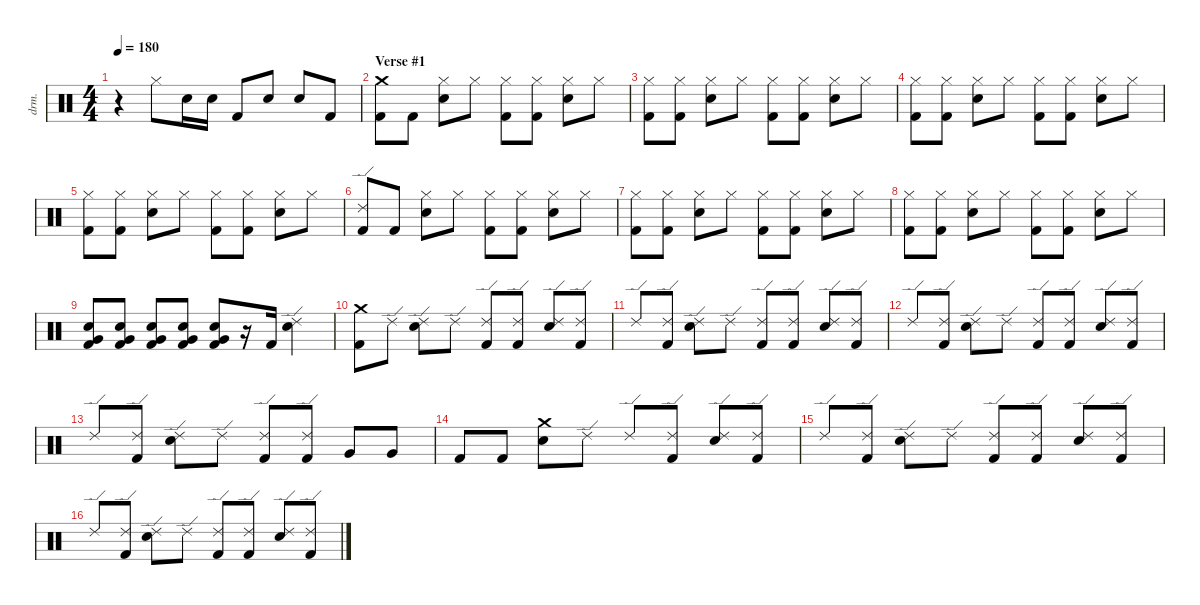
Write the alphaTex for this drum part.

\defaultSystemsLayout 4
\hideDynamics
\bracketExtendMode nobrackets
\otherSystemsTrackNameOrientation horizontal
\track ("Drums" "drm.") {instrument percussion}
\staff {score}
\articulation defaults
\ts (4 4)
\tempo 180
\clef neutral
\ks c
r.4{dy f beam Down} "Hi-Hat (closed)".8{beam Down} "Snare (hit) 2".16{beam Down} "Snare (hit) 2".16{beam Down} "Kick (hit) 2".8{beam Up} "Snare (hit) 2".8{beam Up} "Snare (hit) 2".8{beam Up} "Kick (hit) 2".8{beam Up} |
\section ("" "Verse #1")
("Crash medium (hit)" "Kick (hit) 2").8{beam Down} "Kick (hit) 2".8{beam Down} ("Hi-Hat (closed)" "Snare (hit) 2").8{beam Down} "Hi-Hat (closed)".8{beam Down} ("Hi-Hat (closed)" "Kick (hit) 2").8{beam Down} ("Hi-Hat (closed)" "Kick (hit) 2").8{beam Down} ("Hi-Hat (closed)" "Snare (hit) 2").8{beam Down} "Hi-Hat (closed)".8{beam Down} |
("Hi-Hat (closed)" "Kick (hit) 2").8{beam Down} ("Hi-Hat (closed)" "Kick (hit) 2").8{beam Down} ("Hi-Hat (closed)" "Snare (hit) 2").8{beam Down} "Hi-Hat (closed)".8{beam Down} ("Hi-Hat (closed)" "Kick (hit) 2").8{beam Down} ("Hi-Hat (closed)" "Kick (hit) 2").8{beam Down} ("Hi-Hat (closed)" "Snare (hit) 2").8{beam Down} "Hi-Hat (closed)".8{beam Down} |
("Hi-Hat (closed)" "Kick (hit) 2").8{beam Down} ("Hi-Hat (closed)" "Kick (hit) 2").8{beam Down} ("Hi-Hat (closed)" "Snare (hit) 2").8{beam Down} "Hi-Hat (closed)".8{beam Down} ("Hi-Hat (closed)" "Kick (hit) 2").8{beam Down} ("Hi-Hat (closed)" "Kick (hit) 2").8{beam Down} ("Hi-Hat (closed)" "Snare (hit) 2").8{beam Down} "Hi-Hat (closed)".8{beam Down} |
("Hi-Hat (closed)" "Kick (hit) 2").8{beam Down} ("Hi-Hat (closed)" "Kick (hit) 2").8{beam Down} ("Hi-Hat (closed)" "Snare (hit) 2").8{beam Down} "Hi-Hat (closed)".8{beam Down} ("Hi-Hat (closed)" "Kick (hit) 2").8{beam Down} ("Hi-Hat (closed)" "Kick (hit) 2").8{beam Down} ("Hi-Hat (closed)" "Snare (hit) 2").8{beam Down} "Hi-Hat (closed)".8{beam Down} |
("Ride (edge) 2" "Kick (hit) 2").8{beam Up} "Kick (hit) 2".8{beam Up} ("Hi-Hat (closed)" "Snare (hit) 2").8{beam Down} "Hi-Hat (closed)".8{beam Down} ("Hi-Hat (closed)" "Kick (hit) 2").8{beam Down} ("Hi-Hat (closed)" "Kick (hit) 2").8{beam Down} ("Hi-Hat (closed)" "Snare (hit) 2").8{beam Down} "Hi-Hat (closed)".8{beam Down} |
("Hi-Hat (closed)" "Kick (hit) 2").8{beam Down} ("Hi-Hat (closed)" "Kick (hit) 2").8{beam Down} ("Hi-Hat (closed)" "Snare (hit) 2").8{beam Down} "Hi-Hat (closed)".8{beam Down} ("Hi-Hat (closed)" "Kick (hit) 2").8{beam Down} ("Hi-Hat (closed)" "Kick (hit) 2").8{beam Down} ("Hi-Hat (closed)" "Snare (hit) 2").8{beam Down} "Hi-Hat (closed)".8{beam Down} |
("Hi-Hat (closed)" "Kick (hit) 2").8{beam Down} ("Hi-Hat (closed)" "Kick (hit) 2").8{beam Down} ("Hi-Hat (closed)" "Snare (hit) 2").8{beam Down} "Hi-Hat (closed)".8{beam Down} ("Hi-Hat (closed)" "Kick (hit) 2").8{beam Down} ("Hi-Hat (closed)" "Kick (hit) 2").8{beam Down} ("Hi-Hat (closed)" "Snare (hit) 2").8{beam Down} "Hi-Hat (closed)".8{beam Down} |
("Very Low Tom (hit)" "Snare (hit) 2" "Kick (hit) 2").8{beam Up} ("Very Low Tom (hit)" "Snare (hit) 2" "Kick (hit) 2").8{beam Up} ("Very Low Tom (hit)" "Snare (hit) 2" "Kick (hit) 2").8{beam Up} ("Very Low Tom (hit)" "Snare (hit) 2" "Kick (hit) 2").8{beam Up} ("Very Low Tom (hit)" "Snare (hit) 2" "Kick (hit) 2").8{beam Up} r.16{beam Up} "Kick (hit) 2".16{beam Up} ("Ride (edge) 2" "Snare (hit) 2").4{beam Down} |
("Crash medium (hit)" "Kick (hit) 2").8{beam Down} "Ride (edge) 2".8{beam Down} ("Ride (edge) 2" "Snare (hit) 2").8{beam Down} "Ride (edge) 2".8{beam Down} ("Ride (edge) 2" "Kick (hit) 2").8{beam Up} ("Ride (edge) 2" "Kick (hit) 2").8{beam Up} ("Ride (edge) 2" "Snare (hit) 2").8{beam Up} ("Ride (edge) 2" "Kick (hit) 2").8{beam Up} |
"Ride (edge) 2".8{beam Up} ("Ride (edge) 2" "Kick (hit) 2").8{beam Up} ("Ride (edge) 2" "Snare (hit) 2").8{beam Down} "Ride (edge) 2".8{beam Down} ("Ride (edge) 2" "Kick (hit) 2").8{beam Up} ("Ride (edge) 2" "Kick (hit) 2").8{beam Up} ("Ride (edge) 2" "Snare (hit) 2").8{beam Up} ("Ride (edge) 2" "Kick (hit) 2").8{beam Up} |
"Ride (edge) 2".8{beam Up} ("Ride (edge) 2" "Kick (hit) 2").8{beam Up} ("Ride (edge) 2" "Snare (hit) 2").8{beam Down} "Ride (edge) 2".8{beam Down} ("Ride (edge) 2" "Kick (hit) 2").8{beam Up} ("Ride (edge) 2" "Kick (hit) 2").8{beam Up} ("Ride (edge) 2" "Snare (hit) 2").8{beam Up} ("Ride (edge) 2" "Kick (hit) 2").8{beam Up} |
"Ride (edge) 2".8{beam Up} ("Ride (edge) 2" "Kick (hit) 2").8{beam Up} ("Ride (edge) 2" "Snare (hit) 2").8{beam Down} "Ride (edge) 2".8{beam Down} ("Ride (edge) 2" "Kick (hit) 2").8{beam Up} ("Ride (edge) 2" "Kick (hit) 2").8{beam Up} "Very Low Tom (hit)".8{beam Up} "Very Low Tom (hit)".8{beam Up} |
"Kick (hit) 2".8{beam Up} "Kick (hit) 2".8{beam Up} ("Crash medium (hit)" "Snare (hit) 2").8{beam Down} "Ride (edge) 2".8{beam Down} "Ride (edge) 2".8{beam Up} ("Ride (edge) 2" "Kick (hit) 2").8{beam Up} ("Ride (edge) 2" "Snare (hit) 2").8{beam Up} ("Ride (edge) 2" "Kick (hit) 2").8{beam Up} |
"Ride (edge) 2".8{beam Up} ("Ride (edge) 2" "Kick (hit) 2").8{beam Up} ("Ride (edge) 2" "Snare (hit) 2").8{beam Down} "Ride (edge) 2".8{beam Down} ("Ride (edge) 2" "Kick (hit) 2").8{beam Up} ("Ride (edge) 2" "Kick (hit) 2").8{beam Up} ("Ride (edge) 2" "Snare (hit) 2").8{beam Up} ("Ride (edge) 2" "Kick (hit) 2").8{beam Up} |
"Ride (edge) 2".8{beam Up} ("Ride (edge) 2" "Kick (hit) 2").8{beam Up} ("Ride (edge) 2" "Snare (hit) 2").8{beam Down} "Ride (edge) 2".8{beam Down} ("Ride (edge) 2" "Kick (hit) 2").8{beam Up} ("Ride (edge) 2" "Kick (hit) 2").8{beam Up} ("Ride (edge) 2" "Snare (hit) 2").8{beam Up} ("Ride (edge) 2" "Kick (hit) 2").8{beam Up}
